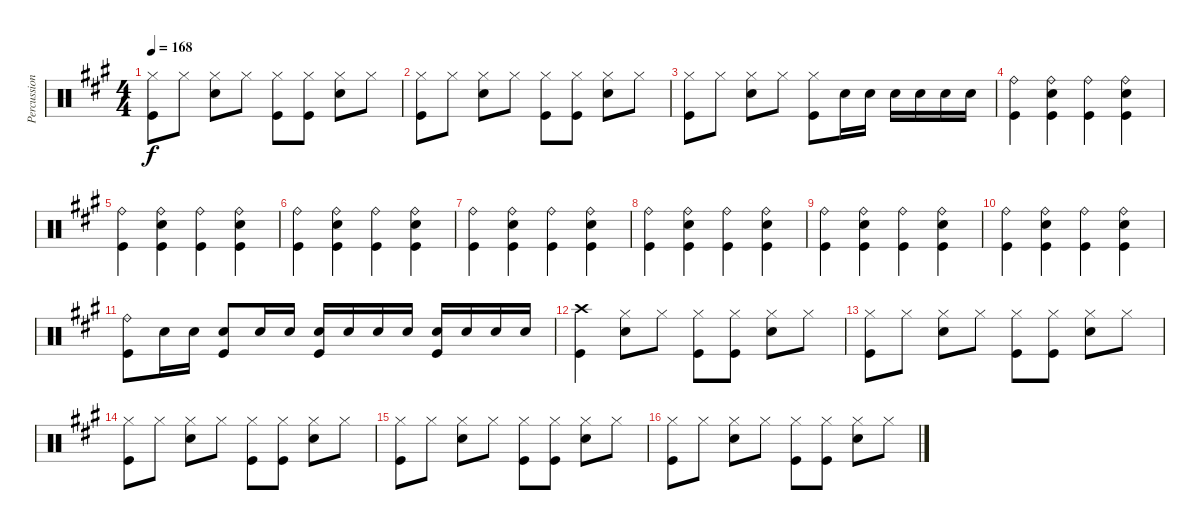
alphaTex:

\track ("Percussion" "Percussion") {instrument percussion}
\staff {score}
\articulation defaults
\ts (4 4)
\tempo 168
\clef neutral
\ks a
("Hi-Hat (closed)" "Kick (hit)").8{dy f} "Hi-Hat (closed)".8 ("Hi-Hat (closed)" "Snare (hit) 2").8 "Hi-Hat (closed)".8 ("Hi-Hat (closed)" "Kick (hit)").8 ("Hi-Hat (closed)" "Kick (hit)").8 ("Hi-Hat (closed)" "Snare (hit) 2").8 "Hi-Hat (closed)".8 |
("Hi-Hat (closed)" "Kick (hit)").8 "Hi-Hat (closed)".8 ("Hi-Hat (closed)" "Snare (hit) 2").8 "Hi-Hat (closed)".8 ("Hi-Hat (closed)" "Kick (hit)").8 ("Hi-Hat (closed)" "Kick (hit)").8 ("Hi-Hat (closed)" "Snare (hit) 2").8 "Hi-Hat (closed)".8 |
("Hi-Hat (closed)" "Kick (hit)").8 "Hi-Hat (closed)".8 ("Hi-Hat (closed)" "Snare (hit) 2").8 "Hi-Hat (closed)".8 ("Hi-Hat (closed)" "Kick (hit)").8 "Snare (hit) 2".16 "Snare (hit) 2".16 "Snare (hit) 2".16 "Snare (hit) 2".16 "Snare (hit) 2".16 "Snare (hit) 2".16 |
("Ride (bell)" "Kick (hit)").4 ("Ride (bell)" "Snare (hit) 2" "Kick (hit)").4 ("Ride (bell)" "Kick (hit)").4 ("Ride (bell)" "Snare (hit) 2" "Kick (hit)").4 |
("Ride (bell)" "Kick (hit)").4 ("Ride (bell)" "Snare (hit) 2" "Kick (hit)").4 ("Ride (bell)" "Kick (hit)").4 ("Ride (bell)" "Snare (hit) 2" "Kick (hit)").4 |
("Ride (bell)" "Kick (hit)").4 ("Ride (bell)" "Snare (hit) 2" "Kick (hit)").4 ("Ride (bell)" "Kick (hit)").4 ("Ride (bell)" "Snare (hit) 2" "Kick (hit)").4 |
("Ride (bell)" "Kick (hit)").4 ("Ride (bell)" "Snare (hit) 2" "Kick (hit)").4 ("Ride (bell)" "Kick (hit)").4 ("Ride (bell)" "Snare (hit) 2" "Kick (hit)").4 |
("Ride (bell)" "Kick (hit)").4 ("Ride (bell)" "Snare (hit) 2" "Kick (hit)").4 ("Ride (bell)" "Kick (hit)").4 ("Ride (bell)" "Snare (hit) 2" "Kick (hit)").4 |
("Ride (bell)" "Kick (hit)").4 ("Ride (bell)" "Snare (hit) 2" "Kick (hit)").4 ("Ride (bell)" "Kick (hit)").4 ("Ride (bell)" "Snare (hit) 2" "Kick (hit)").4 |
("Ride (bell)" "Kick (hit)").4 ("Ride (bell)" "Snare (hit) 2" "Kick (hit)").4 ("Ride (bell)" "Kick (hit)").4 ("Ride (bell)" "Snare (hit) 2" "Kick (hit)").4 |
("Ride (bell)" "Kick (hit)").8 "Snare (hit) 2".16 "Snare (hit) 2".16 ("Snare (hit) 2" "Kick (hit)").8 "Snare (hit) 2".16 "Snare (hit) 2".16 ("Snare (hit) 2" "Kick (hit)").16 "Snare (hit) 2".16 "Snare (hit) 2".16 "Snare (hit) 2".16 ("Snare (hit) 2" "Kick (hit)").16 "Snare (hit) 2".16 "Snare (hit) 2".16 "Snare (hit) 2".16 |
("Crash high (hit)" "Kick (hit)").4 ("Hi-Hat (closed)" "Snare (hit) 2").8 "Hi-Hat (closed)".8 ("Hi-Hat (closed)" "Kick (hit)").8 ("Hi-Hat (closed)" "Kick (hit)").8 ("Hi-Hat (closed)" "Snare (hit) 2").8 "Hi-Hat (closed)".8 |
("Hi-Hat (closed)" "Kick (hit)").8 "Hi-Hat (closed)".8 ("Hi-Hat (closed)" "Snare (hit) 2").8 "Hi-Hat (closed)".8 ("Hi-Hat (closed)" "Kick (hit)").8 ("Hi-Hat (closed)" "Kick (hit)").8 ("Hi-Hat (closed)" "Snare (hit) 2").8 "Hi-Hat (closed)".8 |
("Hi-Hat (closed)" "Kick (hit)").8 "Hi-Hat (closed)".8 ("Hi-Hat (closed)" "Snare (hit) 2").8 "Hi-Hat (closed)".8 ("Hi-Hat (closed)" "Kick (hit)").8 ("Hi-Hat (closed)" "Kick (hit)").8 ("Hi-Hat (closed)" "Snare (hit) 2").8 "Hi-Hat (closed)".8 |
("Hi-Hat (closed)" "Kick (hit)").8 "Hi-Hat (closed)".8 ("Hi-Hat (closed)" "Snare (hit) 2").8 "Hi-Hat (closed)".8 ("Hi-Hat (closed)" "Kick (hit)").8 ("Hi-Hat (closed)" "Kick (hit)").8 ("Hi-Hat (closed)" "Snare (hit) 2").8 "Hi-Hat (closed)".8 |
("Hi-Hat (closed)" "Kick (hit)").8 "Hi-Hat (closed)".8 ("Hi-Hat (closed)" "Snare (hit) 2").8 "Hi-Hat (closed)".8 ("Hi-Hat (closed)" "Kick (hit)").8 ("Hi-Hat (closed)" "Kick (hit)").8 ("Hi-Hat (closed)" "Snare (hit) 2").8 "Hi-Hat (closed)".8
